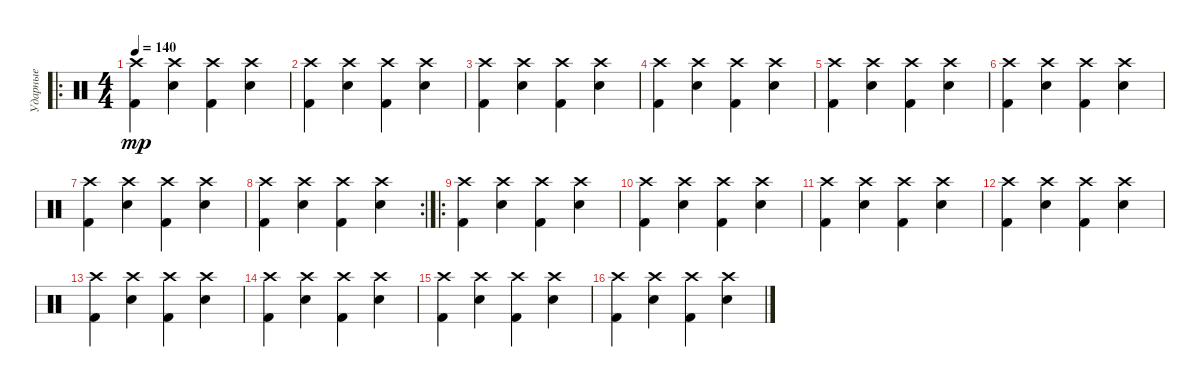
\track ("Ударные" "Ударные") {instrument percussion}
\staff {score}
\articulation defaults
\ro
\ts (4 4)
\tempo 140
\clef neutral
\ks c
("Crash high (hit)" "Kick (hit) 2").4{dy mp} ("Crash high (hit)" "Snare (hit) 2").4 ("Crash high (hit)" "Kick (hit) 2").4 ("Crash high (hit)" "Snare (hit) 2").4 |
("Crash high (hit)" "Kick (hit) 2").4 ("Crash high (hit)" "Snare (hit) 2").4 ("Crash high (hit)" "Kick (hit) 2").4 ("Crash high (hit)" "Snare (hit) 2").4 |
("Crash high (hit)" "Kick (hit) 2").4 ("Crash high (hit)" "Snare (hit) 2").4 ("Crash high (hit)" "Kick (hit) 2").4 ("Crash high (hit)" "Snare (hit) 2").4 |
("Crash high (hit)" "Kick (hit) 2").4 ("Crash high (hit)" "Snare (hit) 2").4 ("Crash high (hit)" "Kick (hit) 2").4 ("Crash high (hit)" "Snare (hit) 2").4 |
("Crash high (hit)" "Kick (hit) 2").4 ("Crash high (hit)" "Snare (hit) 2").4 ("Crash high (hit)" "Kick (hit) 2").4 ("Crash high (hit)" "Snare (hit) 2").4 |
("Crash high (hit)" "Kick (hit) 2").4 ("Crash high (hit)" "Snare (hit) 2").4 ("Crash high (hit)" "Kick (hit) 2").4 ("Crash high (hit)" "Snare (hit) 2").4 |
("Crash high (hit)" "Kick (hit) 2").4 ("Crash high (hit)" "Snare (hit) 2").4 ("Crash high (hit)" "Kick (hit) 2").4 ("Crash high (hit)" "Snare (hit) 2").4 |
\rc 2
("Crash high (hit)" "Kick (hit) 2").4 ("Crash high (hit)" "Snare (hit) 2").4 ("Crash high (hit)" "Kick (hit) 2").4 ("Crash high (hit)" "Snare (hit) 2").4 |
\ro
("Crash high (hit)" "Kick (hit) 2").4 ("Crash high (hit)" "Snare (hit) 2").4 ("Crash high (hit)" "Kick (hit) 2").4 ("Crash high (hit)" "Snare (hit) 2").4 |
("Crash high (hit)" "Kick (hit) 2").4 ("Crash high (hit)" "Snare (hit) 2").4 ("Crash high (hit)" "Kick (hit) 2").4 ("Crash high (hit)" "Snare (hit) 2").4 |
("Crash high (hit)" "Kick (hit) 2").4 ("Crash high (hit)" "Snare (hit) 2").4 ("Crash high (hit)" "Kick (hit) 2").4 ("Crash high (hit)" "Snare (hit) 2").4 |
("Crash high (hit)" "Kick (hit) 2").4 ("Crash high (hit)" "Snare (hit) 2").4 ("Crash high (hit)" "Kick (hit) 2").4 ("Crash high (hit)" "Snare (hit) 2").4 |
("Crash high (hit)" "Kick (hit) 2").4 ("Crash high (hit)" "Snare (hit) 2").4 ("Crash high (hit)" "Kick (hit) 2").4 ("Crash high (hit)" "Snare (hit) 2").4 |
("Crash high (hit)" "Kick (hit) 2").4 ("Crash high (hit)" "Snare (hit) 2").4 ("Crash high (hit)" "Kick (hit) 2").4 ("Crash high (hit)" "Snare (hit) 2").4 |
("Crash high (hit)" "Kick (hit) 2").4 ("Crash high (hit)" "Snare (hit) 2").4 ("Crash high (hit)" "Kick (hit) 2").4 ("Crash high (hit)" "Snare (hit) 2").4 |
("Crash high (hit)" "Kick (hit) 2").4 ("Crash high (hit)" "Snare (hit) 2").4 ("Crash high (hit)" "Kick (hit) 2").4 ("Crash high (hit)" "Snare (hit) 2").4
